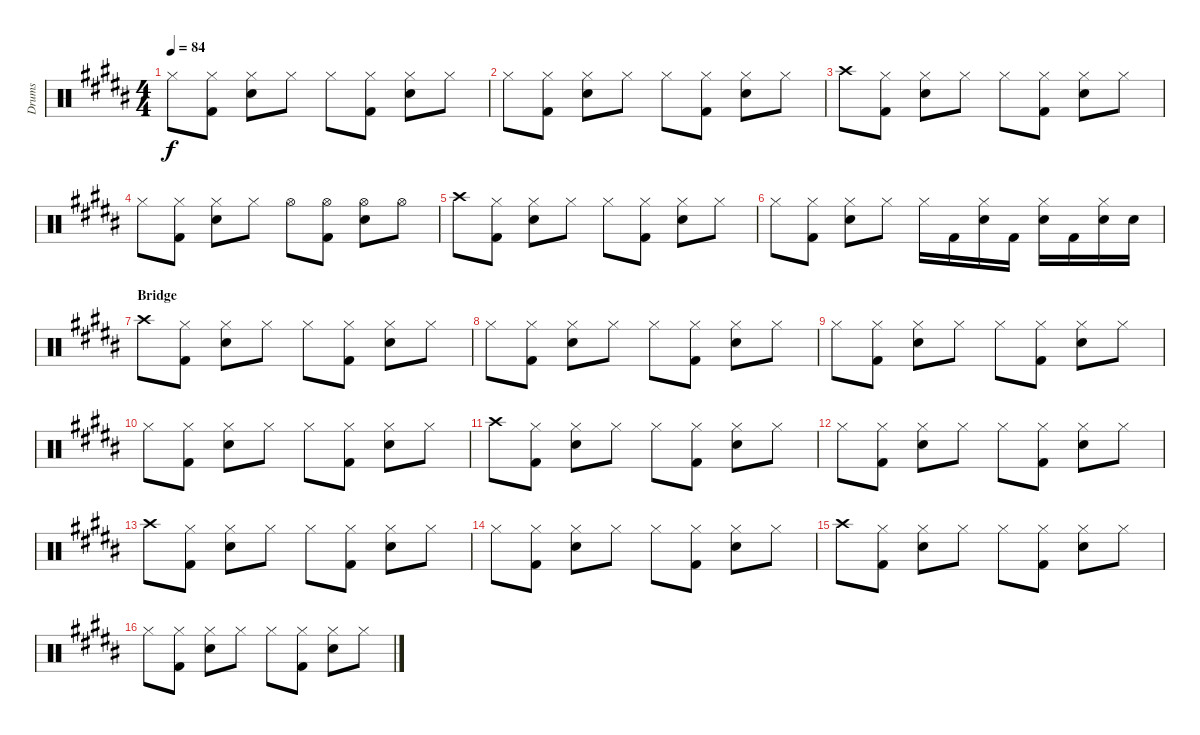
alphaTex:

\track ("Drums" "Drums") {instrument percussion}
\staff {score}
\articulation defaults
\ts (4 4)
\tempo 84
\clef neutral
\ks b "Hi-Hat (closed)".8{dy f}
("Hi-Hat (closed)" "Kick (hit) 2").8 ("Hi-Hat (closed)" "Snare (hit) 2").8 "Hi-Hat (closed)".8 "Hi-Hat (closed)".8 ("Hi-Hat (closed)" "Kick (hit) 2").8 ("Hi-Hat (closed)" "Snare (hit) 2").8 "Hi-Hat (closed)".8 |
"Hi-Hat (closed)".8 ("Hi-Hat (closed)" "Kick (hit) 2").8 ("Hi-Hat (closed)" "Snare (hit) 2").8 "Hi-Hat (closed)".8 "Hi-Hat (closed)".8 ("Hi-Hat (closed)" "Kick (hit) 2").8 ("Hi-Hat (closed)" "Snare (hit) 2").8 "Hi-Hat (closed)".8 |
"Crash high (hit)".8 ("Hi-Hat (closed)" "Kick (hit) 2").8 ("Hi-Hat (closed)" "Snare (hit) 2").8 "Hi-Hat (closed)".8 "Hi-Hat (closed)".8 ("Hi-Hat (closed)" "Kick (hit) 2").8 ("Hi-Hat (closed)" "Snare (hit) 2").8 "Hi-Hat (closed)".8 |
"Hi-Hat (closed)".8 ("Hi-Hat (closed)" "Kick (hit) 2").8 ("Hi-Hat (closed)" "Snare (hit) 2").8 "Hi-Hat (closed)".8 "Hi-Hat (open)".8 ("Hi-Hat (open)" "Kick (hit) 2").8 ("Hi-Hat (open)" "Snare (hit) 2").8 "Hi-Hat (open)".8 |
"Crash high (hit)".8 ("Hi-Hat (closed)" "Kick (hit) 2").8 ("Hi-Hat (closed)" "Snare (hit) 2").8 "Hi-Hat (closed)".8 "Hi-Hat (closed)".8 ("Hi-Hat (closed)" "Kick (hit) 2").8 ("Hi-Hat (closed)" "Snare (hit) 2").8 "Hi-Hat (closed)".8 |
"Hi-Hat (closed)".8 ("Hi-Hat (closed)" "Kick (hit) 2").8 ("Hi-Hat (closed)" "Snare (hit) 2").8 "Hi-Hat (closed)".8 "Hi-Hat (closed)".16 "Kick (hit) 2".16 ("Hi-Hat (closed)" "Snare (hit) 2").16 "Kick (hit) 2".16 ("Snare (hit) 2" "Hi-Hat (closed)").16 "Kick (hit) 2".16 ("Snare (hit) 2" "Hi-Hat (closed)").16 "Snare (hit) 2".16 |
\section ("" "Bridge")
"Crash high (hit)".8 ("Hi-Hat (closed)" "Kick (hit) 2").8 ("Hi-Hat (closed)" "Snare (hit) 2").8 "Hi-Hat (closed)".8 "Hi-Hat (closed)".8 ("Hi-Hat (closed)" "Kick (hit) 2").8 ("Hi-Hat (closed)" "Snare (hit) 2").8 "Hi-Hat (closed)".8 |
"Hi-Hat (closed)".8 ("Hi-Hat (closed)" "Kick (hit) 2").8 ("Hi-Hat (closed)" "Snare (hit) 2").8 "Hi-Hat (closed)".8 "Hi-Hat (closed)".8 ("Hi-Hat (closed)" "Kick (hit) 2").8 ("Hi-Hat (closed)" "Snare (hit) 2").8 "Hi-Hat (closed)".8 |
"Hi-Hat (closed)".8 ("Hi-Hat (closed)" "Kick (hit) 2").8 ("Hi-Hat (closed)" "Snare (hit) 2").8 "Hi-Hat (closed)".8 "Hi-Hat (closed)".8 ("Hi-Hat (closed)" "Kick (hit) 2").8 ("Hi-Hat (closed)" "Snare (hit) 2").8 "Hi-Hat (closed)".8 |
"Hi-Hat (closed)".8 ("Hi-Hat (closed)" "Kick (hit) 2").8 ("Hi-Hat (closed)" "Snare (hit) 2").8 "Hi-Hat (closed)".8 "Hi-Hat (closed)".8 ("Hi-Hat (closed)" "Kick (hit) 2").8 ("Hi-Hat (closed)" "Snare (hit) 2").8 "Hi-Hat (closed)".8 |
"Crash high (hit)".8 ("Hi-Hat (closed)" "Kick (hit) 2").8 ("Hi-Hat (closed)" "Snare (hit) 2").8 "Hi-Hat (closed)".8 "Hi-Hat (closed)".8 ("Hi-Hat (closed)" "Kick (hit) 2").8 ("Hi-Hat (closed)" "Snare (hit) 2").8 "Hi-Hat (closed)".8 |
"Hi-Hat (closed)".8 ("Hi-Hat (closed)" "Kick (hit) 2").8 ("Hi-Hat (closed)" "Snare (hit) 2").8 "Hi-Hat (closed)".8 "Hi-Hat (closed)".8 ("Hi-Hat (closed)" "Kick (hit) 2").8 ("Hi-Hat (closed)" "Snare (hit) 2").8 "Hi-Hat (closed)".8 |
"Crash high (hit)".8 ("Hi-Hat (closed)" "Kick (hit) 2").8 ("Hi-Hat (closed)" "Snare (hit) 2").8 "Hi-Hat (closed)".8 "Hi-Hat (closed)".8 ("Hi-Hat (closed)" "Kick (hit) 2").8 ("Hi-Hat (closed)" "Snare (hit) 2").8 "Hi-Hat (closed)".8 |
"Hi-Hat (closed)".8 ("Hi-Hat (closed)" "Kick (hit) 2").8 ("Hi-Hat (closed)" "Snare (hit) 2").8 "Hi-Hat (closed)".8 "Hi-Hat (closed)".8 ("Hi-Hat (closed)" "Kick (hit) 2").8 ("Hi-Hat (closed)" "Snare (hit) 2").8 "Hi-Hat (closed)".8 |
"Crash high (hit)".8 ("Hi-Hat (closed)" "Kick (hit) 2").8 ("Hi-Hat (closed)" "Snare (hit) 2").8 "Hi-Hat (closed)".8 "Hi-Hat (closed)".8 ("Hi-Hat (closed)" "Kick (hit) 2").8 ("Hi-Hat (closed)" "Snare (hit) 2").8 "Hi-Hat (closed)".8 |
"Hi-Hat (closed)".8 ("Hi-Hat (closed)" "Kick (hit) 2").8 ("Hi-Hat (closed)" "Snare (hit) 2").8 "Hi-Hat (closed)".8 "Hi-Hat (closed)".8 ("Hi-Hat (closed)" "Kick (hit) 2").8 ("Hi-Hat (closed)" "Snare (hit) 2").8 "Hi-Hat (closed)".8
